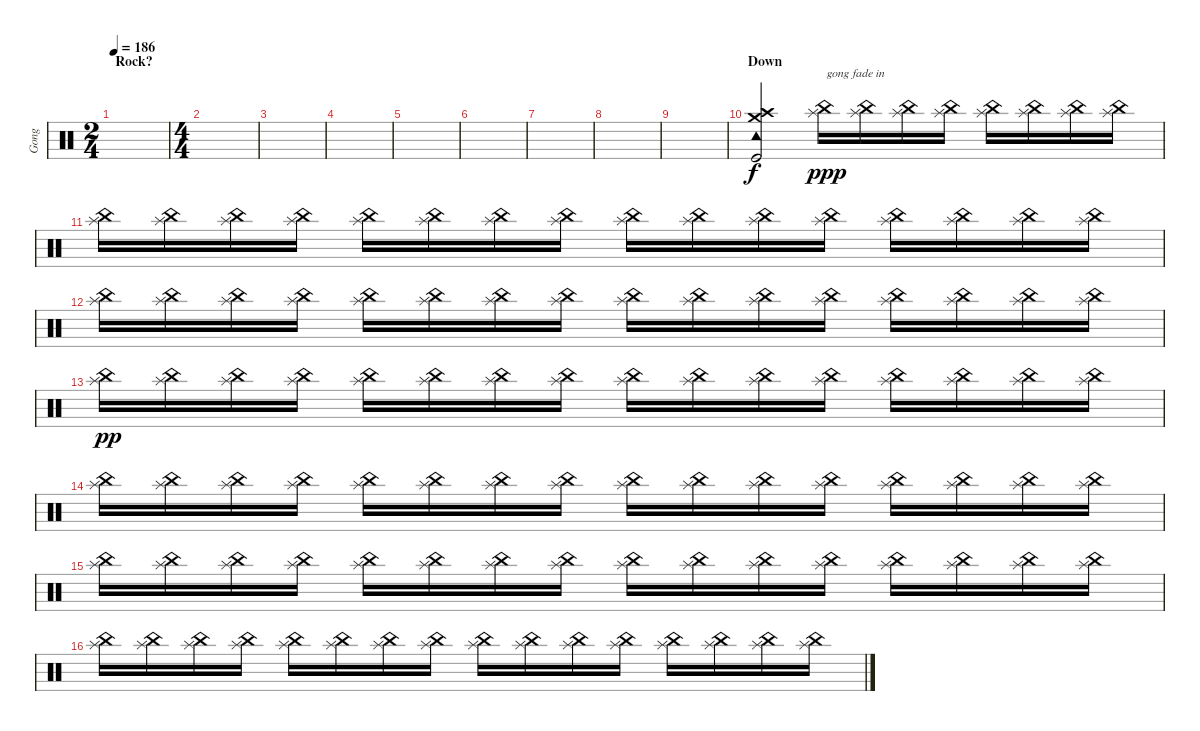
\track ("Gong" "Gong") {instrument percussion}
\staff {score}
\articulation defaults
\ts (2 4)
\section ("" "Rock?")
\tempo 186
\clef neutral
\ks c
|
\ts (4 4)
|
|
|
|
|
|
|
|
\section ("" "Down")
("Tambourine (hit)" "Crash medium (hit)" "Crash high (hit)" "Kick (hit)").2{dy f} ("China (hit)" "Splash (hit)").16{txt "gong fade in" dy ppp} ("China (hit)" "Splash (hit)").16 ("China (hit)" "Splash (hit)").16 ("China (hit)" "Splash (hit)").16 ("China (hit)" "Splash (hit)").16 ("China (hit)" "Splash (hit)").16 ("China (hit)" "Splash (hit)").16 ("China (hit)" "Splash (hit)").16 |
("China (hit)" "Splash (hit)").16 ("China (hit)" "Splash (hit)").16 ("China (hit)" "Splash (hit)").16 ("China (hit)" "Splash (hit)").16 ("China (hit)" "Splash (hit)").16 ("China (hit)" "Splash (hit)").16 ("China (hit)" "Splash (hit)").16 ("China (hit)" "Splash (hit)").16 ("China (hit)" "Splash (hit)").16 ("China (hit)" "Splash (hit)").16 ("China (hit)" "Splash (hit)").16 ("China (hit)" "Splash (hit)").16 ("China (hit)" "Splash (hit)").16 ("China (hit)" "Splash (hit)").16 ("China (hit)" "Splash (hit)").16 ("China (hit)" "Splash (hit)").16 |
("China (hit)" "Splash (hit)").16 ("China (hit)" "Splash (hit)").16 ("China (hit)" "Splash (hit)").16 ("China (hit)" "Splash (hit)").16 ("China (hit)" "Splash (hit)").16 ("China (hit)" "Splash (hit)").16 ("China (hit)" "Splash (hit)").16 ("China (hit)" "Splash (hit)").16 ("China (hit)" "Splash (hit)").16 ("China (hit)" "Splash (hit)").16 ("China (hit)" "Splash (hit)").16 ("China (hit)" "Splash (hit)").16 ("China (hit)" "Splash (hit)").16 ("China (hit)" "Splash (hit)").16 ("China (hit)" "Splash (hit)").16 ("China (hit)" "Splash (hit)").16 |
("China (hit)" "Splash (hit)").16{dy pp} ("China (hit)" "Splash (hit)").16 ("China (hit)" "Splash (hit)").16 ("China (hit)" "Splash (hit)").16 ("China (hit)" "Splash (hit)").16 ("China (hit)" "Splash (hit)").16 ("China (hit)" "Splash (hit)").16 ("China (hit)" "Splash (hit)").16 ("China (hit)" "Splash (hit)").16 ("China (hit)" "Splash (hit)").16 ("China (hit)" "Splash (hit)").16 ("China (hit)" "Splash (hit)").16 ("China (hit)" "Splash (hit)").16 ("China (hit)" "Splash (hit)").16 ("China (hit)" "Splash (hit)").16 ("China (hit)" "Splash (hit)").16 |
("China (hit)" "Splash (hit)").16 ("China (hit)" "Splash (hit)").16 ("China (hit)" "Splash (hit)").16 ("China (hit)" "Splash (hit)").16 ("China (hit)" "Splash (hit)").16 ("China (hit)" "Splash (hit)").16 ("China (hit)" "Splash (hit)").16 ("China (hit)" "Splash (hit)").16 ("China (hit)" "Splash (hit)").16 ("China (hit)" "Splash (hit)").16 ("China (hit)" "Splash (hit)").16 ("China (hit)" "Splash (hit)").16 ("China (hit)" "Splash (hit)").16 ("China (hit)" "Splash (hit)").16 ("China (hit)" "Splash (hit)").16 ("China (hit)" "Splash (hit)").16 |
("China (hit)" "Splash (hit)").16 ("China (hit)" "Splash (hit)").16 ("China (hit)" "Splash (hit)").16 ("China (hit)" "Splash (hit)").16 ("China (hit)" "Splash (hit)").16 ("China (hit)" "Splash (hit)").16 ("China (hit)" "Splash (hit)").16 ("China (hit)" "Splash (hit)").16 ("China (hit)" "Splash (hit)").16 ("China (hit)" "Splash (hit)").16 ("China (hit)" "Splash (hit)").16 ("China (hit)" "Splash (hit)").16 ("China (hit)" "Splash (hit)").16 ("China (hit)" "Splash (hit)").16 ("China (hit)" "Splash (hit)").16 ("China (hit)" "Splash (hit)").16 |
("China (hit)" "Splash (hit)").16 ("China (hit)" "Splash (hit)").16 ("China (hit)" "Splash (hit)").16 ("China (hit)" "Splash (hit)").16 ("China (hit)" "Splash (hit)").16 ("China (hit)" "Splash (hit)").16 ("China (hit)" "Splash (hit)").16 ("China (hit)" "Splash (hit)").16 ("China (hit)" "Splash (hit)").16 ("China (hit)" "Splash (hit)").16 ("China (hit)" "Splash (hit)").16 ("China (hit)" "Splash (hit)").16 ("China (hit)" "Splash (hit)").16 ("China (hit)" "Splash (hit)").16 ("China (hit)" "Splash (hit)").16 ("China (hit)" "Splash (hit)").16
